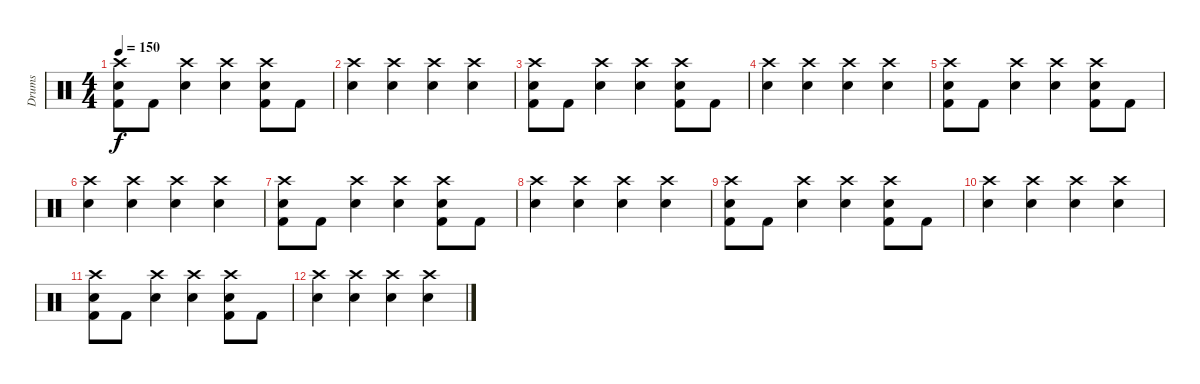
\track ("Drums" "Drums") {instrument percussion}
\staff {score}
\articulation defaults
\ts (4 4)
\tempo 150
\clef neutral
\ks c
("Crash high (hit)" "Snare (hit) 2" "Kick (hit) 2").8{dy f} "Kick (hit) 2".8 ("Crash high (hit)" "Snare (hit) 2").4 ("Crash high (hit)" "Snare (hit) 2").4 ("Crash high (hit)" "Snare (hit) 2" "Kick (hit) 2").8 "Kick (hit) 2".8 |
("Crash high (hit)" "Snare (hit) 2").4 ("Crash high (hit)" "Snare (hit) 2").4 ("Crash high (hit)" "Snare (hit) 2").4 ("Crash high (hit)" "Snare (hit) 2").4 |
("Crash high (hit)" "Snare (hit) 2" "Kick (hit) 2").8 "Kick (hit) 2".8 ("Crash high (hit)" "Snare (hit) 2").4 ("Crash high (hit)" "Snare (hit) 2").4 ("Crash high (hit)" "Snare (hit) 2" "Kick (hit) 2").8 "Kick (hit) 2".8 |
("Crash high (hit)" "Snare (hit) 2").4 ("Crash high (hit)" "Snare (hit) 2").4 ("Crash high (hit)" "Snare (hit) 2").4 ("Crash high (hit)" "Snare (hit) 2").4 |
("Crash high (hit)" "Snare (hit) 2" "Kick (hit) 2").8 "Kick (hit) 2".8 ("Crash high (hit)" "Snare (hit) 2").4 ("Crash high (hit)" "Snare (hit) 2").4 ("Crash high (hit)" "Snare (hit) 2" "Kick (hit) 2").8 "Kick (hit) 2".8 |
("Crash high (hit)" "Snare (hit) 2").4 ("Crash high (hit)" "Snare (hit) 2").4 ("Crash high (hit)" "Snare (hit) 2").4 ("Crash high (hit)" "Snare (hit) 2").4 |
("Crash high (hit)" "Snare (hit) 2" "Kick (hit) 2").8 "Kick (hit) 2".8 ("Crash high (hit)" "Snare (hit) 2").4 ("Crash high (hit)" "Snare (hit) 2").4 ("Crash high (hit)" "Snare (hit) 2" "Kick (hit) 2").8 "Kick (hit) 2".8 |
("Crash high (hit)" "Snare (hit) 2").4 ("Crash high (hit)" "Snare (hit) 2").4 ("Crash high (hit)" "Snare (hit) 2").4 ("Crash high (hit)" "Snare (hit) 2").4 |
("Crash high (hit)" "Snare (hit) 2" "Kick (hit) 2").8 "Kick (hit) 2".8 ("Crash high (hit)" "Snare (hit) 2").4 ("Crash high (hit)" "Snare (hit) 2").4 ("Crash high (hit)" "Snare (hit) 2" "Kick (hit) 2").8 "Kick (hit) 2".8 |
("Crash high (hit)" "Snare (hit) 2").4 ("Crash high (hit)" "Snare (hit) 2").4 ("Crash high (hit)" "Snare (hit) 2").4 ("Crash high (hit)" "Snare (hit) 2").4 |
("Crash high (hit)" "Snare (hit) 2" "Kick (hit) 2").8 "Kick (hit) 2".8 ("Crash high (hit)" "Snare (hit) 2").4 ("Crash high (hit)" "Snare (hit) 2").4 ("Crash high (hit)" "Snare (hit) 2" "Kick (hit) 2").8 "Kick (hit) 2".8 |
("Crash high (hit)" "Snare (hit) 2").4 ("Crash high (hit)" "Snare (hit) 2").4 ("Crash high (hit)" "Snare (hit) 2").4 ("Crash high (hit)" "Snare (hit) 2").4
